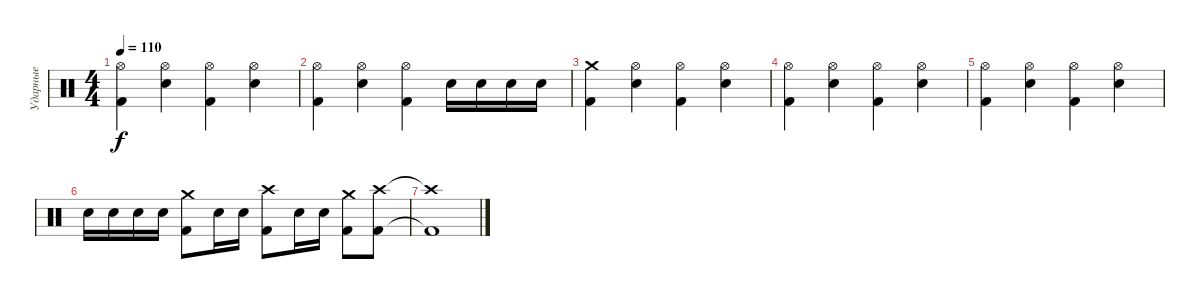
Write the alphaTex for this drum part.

\track ("Ударные" "Ударные") {instrument percussion}
\staff {score}
\articulation defaults
\ts (4 4)
\tempo 110
\clef neutral
\ks c
("Hi-Hat (open)" "Kick (hit) 2").4{dy f} ("Hi-Hat (open)" "Electric Snare (hit)").4 ("Hi-Hat (open)" "Kick (hit) 2").4 ("Hi-Hat (open)" "Electric Snare (hit)").4 |
("Hi-Hat (open)" "Kick (hit) 2").4 ("Hi-Hat (open)" "Electric Snare (hit)").4 ("Hi-Hat (open)" "Kick (hit) 2").4 "Electric Snare (hit)".16 "Electric Snare (hit)".16 "Electric Snare (hit)".16 "Electric Snare (hit)".16 |
("Crash medium (hit)" "Kick (hit) 2").4 ("Hi-Hat (open)" "Electric Snare (hit)").4 ("Hi-Hat (open)" "Kick (hit) 2").4 ("Hi-Hat (open)" "Electric Snare (hit)").4 |
("Hi-Hat (open)" "Kick (hit) 2").4 ("Hi-Hat (open)" "Electric Snare (hit)").4 ("Hi-Hat (open)" "Kick (hit) 2").4 ("Hi-Hat (open)" "Electric Snare (hit)").4 |
("Hi-Hat (open)" "Kick (hit) 2").4 ("Hi-Hat (open)" "Electric Snare (hit)").4 ("Hi-Hat (open)" "Kick (hit) 2").4 ("Hi-Hat (open)" "Electric Snare (hit)").4 |
"Electric Snare (hit)".16 "Electric Snare (hit)".16 "Electric Snare (hit)".16 "Electric Snare (hit)".16 ("Crash medium (hit)" "Kick (hit) 2").8 "Electric Snare (hit)".16 "Electric Snare (hit)".16 ("Crash high (hit)" "Kick (hit) 2").8 "Electric Snare (hit)".16 "Electric Snare (hit)".16 ("Crash medium (hit)" "Kick (hit) 2").8 ("Crash high (hit)" "Kick (hit) 2").8 |
("Crash high (hit)"{t} "Kick (hit) 2"{t}).1
